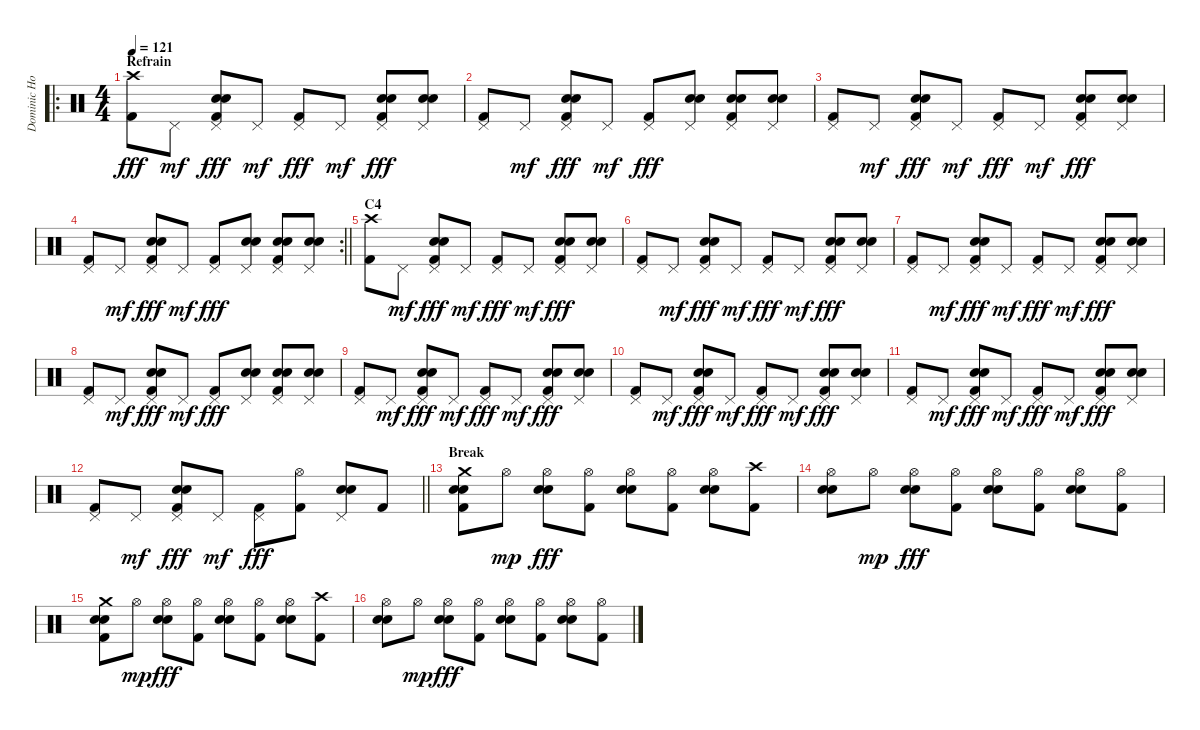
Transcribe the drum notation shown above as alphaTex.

\track ("Dominic Howard" "Dominic Ho") {instrument percussion}
\staff {score}
\articulation defaults
\ro
\ts (4 4)
\section ("" "Refrain")
\tempo 121
\clef neutral
\ks c
("Crash high (hit)" "Kick (hit) 2").8{dy fff} "Pedal Hi-Hat (hit)".8{dy mf} ("Pedal Hi-Hat (hit)" "Hand Clap (hit)" "Electric Snare (hit)" "Kick (hit) 2").8{dy fff} "Pedal Hi-Hat (hit)".8{dy mf} ("Pedal Hi-Hat (hit)" "Kick (hit) 2").8{dy fff} "Pedal Hi-Hat (hit)".8{dy mf} ("Pedal Hi-Hat (hit)" "Hand Clap (hit)" "Electric Snare (hit)" "Kick (hit) 2").8{dy fff} ("Pedal Hi-Hat (hit)" "Hand Clap (hit)" "Electric Snare (hit)").8 |
("Pedal Hi-Hat (hit)" "Kick (hit) 2").8 "Pedal Hi-Hat (hit)".8{dy mf} ("Pedal Hi-Hat (hit)" "Hand Clap (hit)" "Electric Snare (hit)" "Kick (hit) 2").8{dy fff} "Pedal Hi-Hat (hit)".8{dy mf} ("Pedal Hi-Hat (hit)" "Kick (hit) 2").8{dy fff} ("Pedal Hi-Hat (hit)" "Hand Clap (hit)" "Electric Snare (hit)").8 ("Pedal Hi-Hat (hit)" "Hand Clap (hit)" "Electric Snare (hit)" "Kick (hit) 2").8 ("Pedal Hi-Hat (hit)" "Hand Clap (hit)" "Electric Snare (hit)").8 |
("Pedal Hi-Hat (hit)" "Kick (hit) 2").8 "Pedal Hi-Hat (hit)".8{dy mf} ("Pedal Hi-Hat (hit)" "Hand Clap (hit)" "Electric Snare (hit)" "Kick (hit) 2").8{dy fff} "Pedal Hi-Hat (hit)".8{dy mf} ("Pedal Hi-Hat (hit)" "Kick (hit) 2").8{dy fff} "Pedal Hi-Hat (hit)".8{dy mf} ("Pedal Hi-Hat (hit)" "Hand Clap (hit)" "Electric Snare (hit)" "Kick (hit) 2").8{dy fff} ("Pedal Hi-Hat (hit)" "Hand Clap (hit)" "Electric Snare (hit)").8 |
\rc 2
\barLineRight lightlight
("Pedal Hi-Hat (hit)" "Kick (hit) 2").8 "Pedal Hi-Hat (hit)".8{dy mf} ("Pedal Hi-Hat (hit)" "Hand Clap (hit)" "Electric Snare (hit)" "Kick (hit) 2").8{dy fff} "Pedal Hi-Hat (hit)".8{dy mf} ("Pedal Hi-Hat (hit)" "Kick (hit) 2").8{dy fff} ("Pedal Hi-Hat (hit)" "Hand Clap (hit)" "Electric Snare (hit)").8 ("Pedal Hi-Hat (hit)" "Hand Clap (hit)" "Electric Snare (hit)" "Kick (hit) 2").8 ("Pedal Hi-Hat (hit)" "Hand Clap (hit)" "Electric Snare (hit)").8 |
\section ("" "C4")
("Crash high (hit)" "Kick (hit) 2").8 "Pedal Hi-Hat (hit)".8{dy mf} ("Pedal Hi-Hat (hit)" "Hand Clap (hit)" "Electric Snare (hit)" "Kick (hit) 2").8{dy fff} "Pedal Hi-Hat (hit)".8{dy mf} ("Pedal Hi-Hat (hit)" "Kick (hit) 2").8{dy fff} "Pedal Hi-Hat (hit)".8{dy mf} ("Pedal Hi-Hat (hit)" "Hand Clap (hit)" "Electric Snare (hit)" "Kick (hit) 2").8{dy fff} ("Pedal Hi-Hat (hit)" "Hand Clap (hit)" "Electric Snare (hit)").8 |
("Pedal Hi-Hat (hit)" "Kick (hit) 2").8 "Pedal Hi-Hat (hit)".8{dy mf} ("Pedal Hi-Hat (hit)" "Hand Clap (hit)" "Electric Snare (hit)" "Kick (hit) 2").8{dy fff} "Pedal Hi-Hat (hit)".8{dy mf} ("Pedal Hi-Hat (hit)" "Kick (hit) 2").8{dy fff} "Pedal Hi-Hat (hit)".8{dy mf} ("Pedal Hi-Hat (hit)" "Hand Clap (hit)" "Electric Snare (hit)" "Kick (hit) 2").8{dy fff} ("Pedal Hi-Hat (hit)" "Hand Clap (hit)" "Electric Snare (hit)").8 |
("Pedal Hi-Hat (hit)" "Kick (hit) 2").8 "Pedal Hi-Hat (hit)".8{dy mf} ("Pedal Hi-Hat (hit)" "Hand Clap (hit)" "Electric Snare (hit)" "Kick (hit) 2").8{dy fff} "Pedal Hi-Hat (hit)".8{dy mf} ("Pedal Hi-Hat (hit)" "Kick (hit) 2").8{dy fff} "Pedal Hi-Hat (hit)".8{dy mf} ("Pedal Hi-Hat (hit)" "Hand Clap (hit)" "Electric Snare (hit)" "Kick (hit) 2").8{dy fff} ("Pedal Hi-Hat (hit)" "Hand Clap (hit)" "Electric Snare (hit)").8 |
("Pedal Hi-Hat (hit)" "Kick (hit) 2").8 "Pedal Hi-Hat (hit)".8{dy mf} ("Pedal Hi-Hat (hit)" "Hand Clap (hit)" "Electric Snare (hit)" "Kick (hit) 2").8{dy fff} "Pedal Hi-Hat (hit)".8{dy mf} ("Pedal Hi-Hat (hit)" "Kick (hit) 2").8{dy fff} ("Pedal Hi-Hat (hit)" "Hand Clap (hit)" "Electric Snare (hit)").8 ("Pedal Hi-Hat (hit)" "Hand Clap (hit)" "Electric Snare (hit)" "Kick (hit) 2").8 ("Pedal Hi-Hat (hit)" "Hand Clap (hit)" "Electric Snare (hit)").8 |
("Pedal Hi-Hat (hit)" "Kick (hit) 2").8 "Pedal Hi-Hat (hit)".8{dy mf} ("Pedal Hi-Hat (hit)" "Hand Clap (hit)" "Electric Snare (hit)" "Kick (hit) 2").8{dy fff} "Pedal Hi-Hat (hit)".8{dy mf} ("Pedal Hi-Hat (hit)" "Kick (hit) 2").8{dy fff} "Pedal Hi-Hat (hit)".8{dy mf} ("Pedal Hi-Hat (hit)" "Hand Clap (hit)" "Electric Snare (hit)" "Kick (hit) 2").8{dy fff} ("Pedal Hi-Hat (hit)" "Hand Clap (hit)" "Electric Snare (hit)").8 |
("Pedal Hi-Hat (hit)" "Kick (hit) 2").8 "Pedal Hi-Hat (hit)".8{dy mf} ("Pedal Hi-Hat (hit)" "Hand Clap (hit)" "Electric Snare (hit)" "Kick (hit) 2").8{dy fff} "Pedal Hi-Hat (hit)".8{dy mf} ("Pedal Hi-Hat (hit)" "Kick (hit) 2").8{dy fff} "Pedal Hi-Hat (hit)".8{dy mf} ("Pedal Hi-Hat (hit)" "Hand Clap (hit)" "Electric Snare (hit)" "Kick (hit) 2").8{dy fff} ("Pedal Hi-Hat (hit)" "Hand Clap (hit)" "Electric Snare (hit)").8 |
("Pedal Hi-Hat (hit)" "Kick (hit) 2").8 "Pedal Hi-Hat (hit)".8{dy mf} ("Pedal Hi-Hat (hit)" "Hand Clap (hit)" "Electric Snare (hit)" "Kick (hit) 2").8{dy fff} "Pedal Hi-Hat (hit)".8{dy mf} ("Pedal Hi-Hat (hit)" "Kick (hit) 2").8{dy fff} "Pedal Hi-Hat (hit)".8{dy mf} ("Pedal Hi-Hat (hit)" "Hand Clap (hit)" "Electric Snare (hit)" "Kick (hit) 2").8{dy fff} ("Pedal Hi-Hat (hit)" "Hand Clap (hit)" "Electric Snare (hit)").8 |
\barLineRight lightlight
("Pedal Hi-Hat (hit)" "Kick (hit) 2").8 "Pedal Hi-Hat (hit)".8{dy mf} ("Pedal Hi-Hat (hit)" "Hand Clap (hit)" "Electric Snare (hit)" "Kick (hit) 2").8{dy fff} "Pedal Hi-Hat (hit)".8{dy mf} ("Pedal Hi-Hat (hit)" "Kick (hit) 2").8{dy fff} ("Hi-Hat (open)" "Kick (hit) 2").8 ("Pedal Hi-Hat (hit)" "Hand Clap (hit)" "Electric Snare (hit)").8 "Kick (hit) 2".8 |
\section ("" "Break")
("Crash medium (hit)" "Snare (hit) 2" "Electric Snare (hit)" "Kick (hit) 2").8 "Hi-Hat (open)".8{dy mp} ("Hi-Hat (open)" "Snare (hit) 2" "Electric Snare (hit)").8{dy fff} ("Hi-Hat (open)" "Kick (hit) 2").8 ("Hi-Hat (open)" "Snare (hit) 2" "Electric Snare (hit)").8 ("Hi-Hat (open)" "Kick (hit) 2").8 ("Hi-Hat (open)" "Snare (hit) 2" "Electric Snare (hit)").8 ("Crash high (hit)" "Kick (hit) 2").8 |
("Hi-Hat (open)" "Snare (hit) 2" "Electric Snare (hit)").8 "Hi-Hat (open)".8{dy mp} ("Hi-Hat (open)" "Snare (hit) 2" "Electric Snare (hit)").8{dy fff} ("Hi-Hat (open)" "Kick (hit) 2").8 ("Hi-Hat (open)" "Snare (hit) 2" "Electric Snare (hit)").8 ("Hi-Hat (open)" "Kick (hit) 2").8 ("Hi-Hat (open)" "Snare (hit) 2" "Electric Snare (hit)").8 ("Hi-Hat (open)" "Kick (hit) 2").8 |
("Crash medium (hit)" "Snare (hit) 2" "Electric Snare (hit)" "Kick (hit) 2").8 "Hi-Hat (open)".8{dy mp} ("Hi-Hat (open)" "Snare (hit) 2" "Electric Snare (hit)").8{dy fff} ("Hi-Hat (open)" "Kick (hit) 2").8 ("Hi-Hat (open)" "Snare (hit) 2" "Electric Snare (hit)").8 ("Hi-Hat (open)" "Kick (hit) 2").8 ("Hi-Hat (open)" "Snare (hit) 2" "Electric Snare (hit)").8 ("Crash high (hit)" "Kick (hit) 2").8 |
("Hi-Hat (open)" "Snare (hit) 2" "Electric Snare (hit)").8 "Hi-Hat (open)".8{dy mp} ("Hi-Hat (open)" "Snare (hit) 2" "Electric Snare (hit)").8{dy fff} ("Hi-Hat (open)" "Kick (hit) 2").8 ("Hi-Hat (open)" "Snare (hit) 2" "Electric Snare (hit)").8 ("Hi-Hat (open)" "Kick (hit) 2").8 ("Hi-Hat (open)" "Snare (hit) 2" "Electric Snare (hit)").8 ("Hi-Hat (open)" "Kick (hit) 2").8
